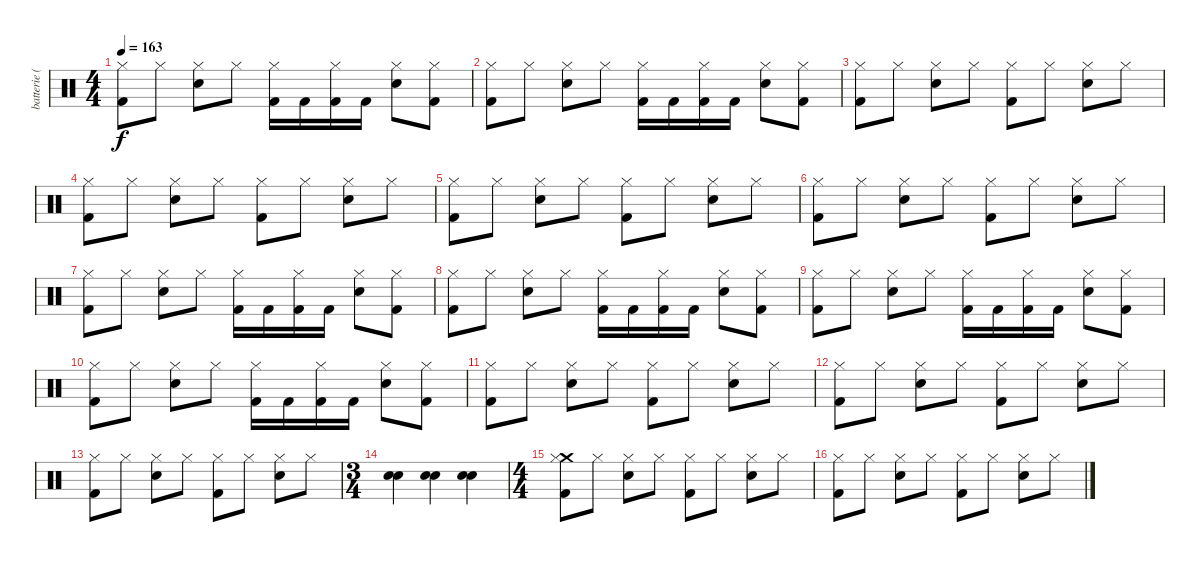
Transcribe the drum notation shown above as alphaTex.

\track ("batterie ( Carlos ) " "batterie (") {instrument percussion}
\staff {score}
\articulation defaults
\ts (4 4)
\tempo 163
\clef neutral
\ks c
("Hi-Hat (closed)" "Kick (hit) 2").8{dy f} "Hi-Hat (closed)".8 ("Hi-Hat (closed)" "Electric Snare (hit)").8 "Hi-Hat (closed)".8 ("Hi-Hat (closed)" "Kick (hit) 2").16 "Kick (hit) 2".16 ("Hi-Hat (closed)" "Kick (hit) 2").16 "Kick (hit) 2".16 ("Hi-Hat (closed)" "Electric Snare (hit)").8 ("Hi-Hat (closed)" "Kick (hit) 2").8 |
("Hi-Hat (closed)" "Kick (hit) 2").8 "Hi-Hat (closed)".8 ("Hi-Hat (closed)" "Electric Snare (hit)").8 "Hi-Hat (closed)".8 ("Hi-Hat (closed)" "Kick (hit) 2").16 "Kick (hit) 2".16 ("Hi-Hat (closed)" "Kick (hit) 2").16 "Kick (hit) 2".16 ("Hi-Hat (closed)" "Electric Snare (hit)").8 ("Hi-Hat (closed)" "Kick (hit) 2").8 |
("Hi-Hat (closed)" "Kick (hit) 2").8 "Hi-Hat (closed)".8 ("Hi-Hat (closed)" "Electric Snare (hit)").8 "Hi-Hat (closed)".8 ("Hi-Hat (closed)" "Kick (hit) 2").8 "Hi-Hat (closed)".8 ("Hi-Hat (closed)" "Electric Snare (hit)").8 "Hi-Hat (closed)".8 |
("Hi-Hat (closed)" "Kick (hit) 2").8 "Hi-Hat (closed)".8 ("Hi-Hat (closed)" "Electric Snare (hit)").8 "Hi-Hat (closed)".8 ("Hi-Hat (closed)" "Kick (hit) 2").8 "Hi-Hat (closed)".8 ("Hi-Hat (closed)" "Electric Snare (hit)").8 "Hi-Hat (closed)".8 |
("Hi-Hat (closed)" "Kick (hit) 2").8 "Hi-Hat (closed)".8 ("Hi-Hat (closed)" "Electric Snare (hit)").8 "Hi-Hat (closed)".8 ("Hi-Hat (closed)" "Kick (hit) 2").8 "Hi-Hat (closed)".8 ("Hi-Hat (closed)" "Electric Snare (hit)").8 "Hi-Hat (closed)".8 |
("Hi-Hat (closed)" "Kick (hit) 2").8 "Hi-Hat (closed)".8 ("Hi-Hat (closed)" "Electric Snare (hit)").8 "Hi-Hat (closed)".8 ("Hi-Hat (closed)" "Kick (hit) 2").8 "Hi-Hat (closed)".8 ("Hi-Hat (closed)" "Electric Snare (hit)").8 "Hi-Hat (closed)".8 |
("Hi-Hat (closed)" "Kick (hit) 2").8 "Hi-Hat (closed)".8 ("Hi-Hat (closed)" "Electric Snare (hit)").8 "Hi-Hat (closed)".8 ("Hi-Hat (closed)" "Kick (hit) 2").16 "Kick (hit) 2".16 ("Hi-Hat (closed)" "Kick (hit) 2").16 "Kick (hit) 2".16 ("Hi-Hat (closed)" "Electric Snare (hit)").8 ("Hi-Hat (closed)" "Kick (hit) 2").8 |
("Hi-Hat (closed)" "Kick (hit) 2").8 "Hi-Hat (closed)".8 ("Hi-Hat (closed)" "Electric Snare (hit)").8 "Hi-Hat (closed)".8 ("Hi-Hat (closed)" "Kick (hit) 2").16 "Kick (hit) 2".16 ("Hi-Hat (closed)" "Kick (hit) 2").16 "Kick (hit) 2".16 ("Hi-Hat (closed)" "Electric Snare (hit)").8 ("Hi-Hat (closed)" "Kick (hit) 2").8 |
("Hi-Hat (closed)" "Kick (hit) 2").8 "Hi-Hat (closed)".8 ("Hi-Hat (closed)" "Electric Snare (hit)").8 "Hi-Hat (closed)".8 ("Hi-Hat (closed)" "Kick (hit) 2").16 "Kick (hit) 2".16 ("Hi-Hat (closed)" "Kick (hit) 2").16 "Kick (hit) 2".16 ("Hi-Hat (closed)" "Electric Snare (hit)").8 ("Hi-Hat (closed)" "Kick (hit) 2").8 |
("Hi-Hat (closed)" "Kick (hit) 2").8 "Hi-Hat (closed)".8 ("Hi-Hat (closed)" "Electric Snare (hit)").8 "Hi-Hat (closed)".8 ("Hi-Hat (closed)" "Kick (hit) 2").16 "Kick (hit) 2".16 ("Hi-Hat (closed)" "Kick (hit) 2").16 "Kick (hit) 2".16 ("Hi-Hat (closed)" "Electric Snare (hit)").8 ("Hi-Hat (closed)" "Kick (hit) 2").8 |
("Hi-Hat (closed)" "Kick (hit) 2").8 "Hi-Hat (closed)".8 ("Hi-Hat (closed)" "Electric Snare (hit)").8 "Hi-Hat (closed)".8 ("Hi-Hat (closed)" "Kick (hit) 2").8 "Hi-Hat (closed)".8 ("Hi-Hat (closed)" "Electric Snare (hit)").8 "Hi-Hat (closed)".8 |
("Hi-Hat (closed)" "Kick (hit) 2").8 "Hi-Hat (closed)".8 ("Hi-Hat (closed)" "Electric Snare (hit)").8 "Hi-Hat (closed)".8 ("Hi-Hat (closed)" "Kick (hit) 2").8 "Hi-Hat (closed)".8 ("Hi-Hat (closed)" "Electric Snare (hit)").8 "Hi-Hat (closed)".8 |
("Hi-Hat (closed)" "Kick (hit) 2").8 "Hi-Hat (closed)".8 ("Hi-Hat (closed)" "Electric Snare (hit)").8 "Hi-Hat (closed)".8 ("Hi-Hat (closed)" "Kick (hit) 2").8 "Hi-Hat (closed)".8 ("Hi-Hat (closed)" "Electric Snare (hit)").8 "Hi-Hat (closed)".8 |
\ts (3 4)
("Electric Snare (hit)" "Snare (hit) 2").4 ("Electric Snare (hit)" "Snare (hit) 2").4 ("Electric Snare (hit)" "Snare (hit) 2").4 |
\ts (4 4)
("Crash medium (hit)" "Hi-Hat (closed)" "Kick (hit) 2").8 "Hi-Hat (closed)".8 ("Hi-Hat (closed)" "Electric Snare (hit)").8 "Hi-Hat (closed)".8 ("Hi-Hat (closed)" "Kick (hit) 2").8 "Hi-Hat (closed)".8 ("Hi-Hat (closed)" "Electric Snare (hit)").8 "Hi-Hat (closed)".8 |
("Hi-Hat (closed)" "Kick (hit) 2").8 "Hi-Hat (closed)".8 ("Hi-Hat (closed)" "Electric Snare (hit)").8 "Hi-Hat (closed)".8 ("Hi-Hat (closed)" "Kick (hit) 2").8 "Hi-Hat (closed)".8 ("Hi-Hat (closed)" "Electric Snare (hit)").8 "Hi-Hat (closed)".8
